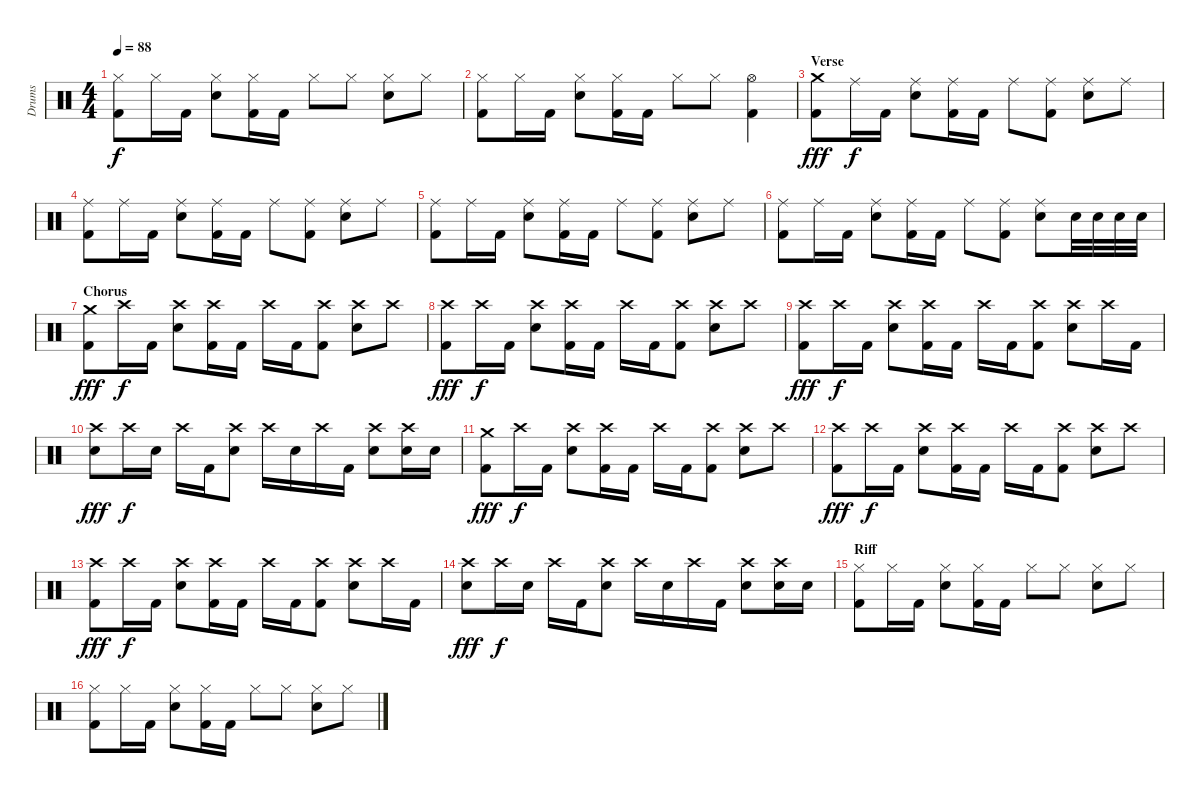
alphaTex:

\track ("Drums" "Drums") {instrument percussion}
\staff {score}
\articulation defaults
\ts (4 4)
\tempo 88
\clef neutral
\ks c
("Hi-Hat (closed)" "Kick (hit) 2").8{dy f} "Hi-Hat (closed)".16 "Kick (hit) 2".16 ("Hi-Hat (closed)" "Electric Snare (hit)").8 ("Hi-Hat (closed)" "Kick (hit) 2").16 "Kick (hit) 2".16 "Hi-Hat (closed)".8 "Hi-Hat (closed)".8 ("Hi-Hat (closed)" "Electric Snare (hit)").8 "Hi-Hat (closed)".8 |
("Hi-Hat (closed)" "Kick (hit) 2").8 "Hi-Hat (closed)".16 "Kick (hit) 2".16 ("Hi-Hat (closed)" "Electric Snare (hit)").8 ("Hi-Hat (closed)" "Kick (hit) 2").16 "Kick (hit) 2".16 "Hi-Hat (closed)".8 "Hi-Hat (closed)".8 ("Hi-Hat (open)" "Kick (hit) 2").4 |
\section ("" "Verse")
("Crash medium (hit)" "Kick (hit) 2").8{dy fff} "Ride (middle)".16{dy f} "Kick (hit) 2".16 ("Ride (middle)" "Electric Snare (hit)").8 ("Ride (middle)" "Kick (hit) 2").16 "Kick (hit) 2".16 "Ride (middle)".8 ("Ride (middle)" "Kick (hit) 2").8 ("Ride (middle)" "Electric Snare (hit)").8 "Ride (middle)".8 |
("Ride (middle)" "Kick (hit) 2").8 "Ride (middle)".16 "Kick (hit) 2".16 ("Ride (middle)" "Electric Snare (hit)").8 ("Ride (middle)" "Kick (hit) 2").16 "Kick (hit) 2".16 "Ride (middle)".8 ("Ride (middle)" "Kick (hit) 2").8 ("Ride (middle)" "Electric Snare (hit)").8 "Ride (middle)".8 |
("Ride (middle)" "Kick (hit) 2").8 "Ride (middle)".16 "Kick (hit) 2".16 ("Ride (middle)" "Electric Snare (hit)").8 ("Ride (middle)" "Kick (hit) 2").16 "Kick (hit) 2".16 "Ride (middle)".8 ("Ride (middle)" "Kick (hit) 2").8 ("Ride (middle)" "Electric Snare (hit)").8 "Ride (middle)".8 |
("Ride (middle)" "Kick (hit) 2").8 "Ride (middle)".16 "Kick (hit) 2".16 ("Ride (middle)" "Electric Snare (hit)").8 ("Ride (middle)" "Kick (hit) 2").16 "Kick (hit) 2".16 "Ride (middle)".8 ("Ride (middle)" "Kick (hit) 2").8 ("Ride (middle)" "Electric Snare (hit)").8 "Electric Snare (hit)".32 "Electric Snare (hit)".32 "Electric Snare (hit)".32 "Electric Snare (hit)".32 |
\section ("" "Chorus")
("Crash medium (hit)" "Kick (hit) 2").8{dy fff} "Crash high (hit)".16{dy f} "Kick (hit) 2".16 ("Crash high (hit)" "Electric Snare (hit)").8 ("Crash high (hit)" "Kick (hit) 2").16 "Kick (hit) 2".16 "Crash high (hit)".16 "Kick (hit) 2".16 ("Crash high (hit)" "Kick (hit) 2").8 ("Crash high (hit)" "Electric Snare (hit)").8 "Crash high (hit)".8 |
("Crash high (hit)" "Kick (hit) 2").8{dy fff} "Crash high (hit)".16{dy f} "Kick (hit) 2".16 ("Crash high (hit)" "Electric Snare (hit)").8 ("Crash high (hit)" "Kick (hit) 2").16 "Kick (hit) 2".16 "Crash high (hit)".16 "Kick (hit) 2".16 ("Crash high (hit)" "Kick (hit) 2").8 ("Crash high (hit)" "Electric Snare (hit)").8 "Crash high (hit)".8 |
("Crash high (hit)" "Kick (hit) 2").8{dy fff} "Crash high (hit)".16{dy f} "Kick (hit) 2".16 ("Crash high (hit)" "Electric Snare (hit)").8 ("Crash high (hit)" "Kick (hit) 2").16 "Kick (hit) 2".16 "Crash high (hit)".16 "Kick (hit) 2".16 ("Crash high (hit)" "Kick (hit) 2").8 ("Crash high (hit)" "Electric Snare (hit)").8 "Crash high (hit)".16 "Kick (hit) 2".16 |
("Crash high (hit)" "Electric Snare (hit)").8{dy fff} "Crash high (hit)".16{dy f} "Electric Snare (hit)".16 "Crash high (hit)".16 "Kick (hit) 2".16 ("Crash high (hit)" "Electric Snare (hit)").8 "Crash high (hit)".16 "Electric Snare (hit)".16 "Crash high (hit)".16 "Kick (hit) 2".16 ("Crash high (hit)" "Electric Snare (hit)").8 ("Crash high (hit)" "Electric Snare (hit)").16 "Electric Snare (hit)".16 |
("Crash medium (hit)" "Kick (hit) 2").8{dy fff} "Crash high (hit)".16{dy f} "Kick (hit) 2".16 ("Crash high (hit)" "Electric Snare (hit)").8 ("Crash high (hit)" "Kick (hit) 2").16 "Kick (hit) 2".16 "Crash high (hit)".16 "Kick (hit) 2".16 ("Crash high (hit)" "Kick (hit) 2").8 ("Crash high (hit)" "Electric Snare (hit)").8 "Crash high (hit)".8 |
("Crash high (hit)" "Kick (hit) 2").8{dy fff} "Crash high (hit)".16{dy f} "Kick (hit) 2".16 ("Crash high (hit)" "Electric Snare (hit)").8 ("Crash high (hit)" "Kick (hit) 2").16 "Kick (hit) 2".16 "Crash high (hit)".16 "Kick (hit) 2".16 ("Crash high (hit)" "Kick (hit) 2").8 ("Crash high (hit)" "Electric Snare (hit)").8 "Crash high (hit)".8 |
("Crash high (hit)" "Kick (hit) 2").8{dy fff} "Crash high (hit)".16{dy f} "Kick (hit) 2".16 ("Crash high (hit)" "Electric Snare (hit)").8 ("Crash high (hit)" "Kick (hit) 2").16 "Kick (hit) 2".16 "Crash high (hit)".16 "Kick (hit) 2".16 ("Crash high (hit)" "Kick (hit) 2").8 ("Crash high (hit)" "Electric Snare (hit)").8 "Crash high (hit)".16 "Kick (hit) 2".16 |
("Crash high (hit)" "Electric Snare (hit)").8{dy fff} "Crash high (hit)".16{dy f} "Electric Snare (hit)".16 "Crash high (hit)".16 "Kick (hit) 2".16 ("Crash high (hit)" "Electric Snare (hit)").8 "Crash high (hit)".16 "Electric Snare (hit)".16 "Crash high (hit)".16 "Kick (hit) 2".16 ("Crash high (hit)" "Electric Snare (hit)").8 ("Crash high (hit)" "Electric Snare (hit)").16 "Electric Snare (hit)".16 |
\section ("" "Riff")
("Hi-Hat (closed)" "Kick (hit) 2").8 "Hi-Hat (closed)".16 "Kick (hit) 2".16 ("Hi-Hat (closed)" "Electric Snare (hit)").8 ("Hi-Hat (closed)" "Kick (hit) 2").16 "Kick (hit) 2".16 "Hi-Hat (closed)".8 "Hi-Hat (closed)".8 ("Hi-Hat (closed)" "Electric Snare (hit)").8 "Hi-Hat (closed)".8 |
("Hi-Hat (closed)" "Kick (hit) 2").8 "Hi-Hat (closed)".16 "Kick (hit) 2".16 ("Hi-Hat (closed)" "Electric Snare (hit)").8 ("Hi-Hat (closed)" "Kick (hit) 2").16 "Kick (hit) 2".16 "Hi-Hat (closed)".8 "Hi-Hat (closed)".8 ("Hi-Hat (closed)" "Electric Snare (hit)").8 "Hi-Hat (closed)".8
